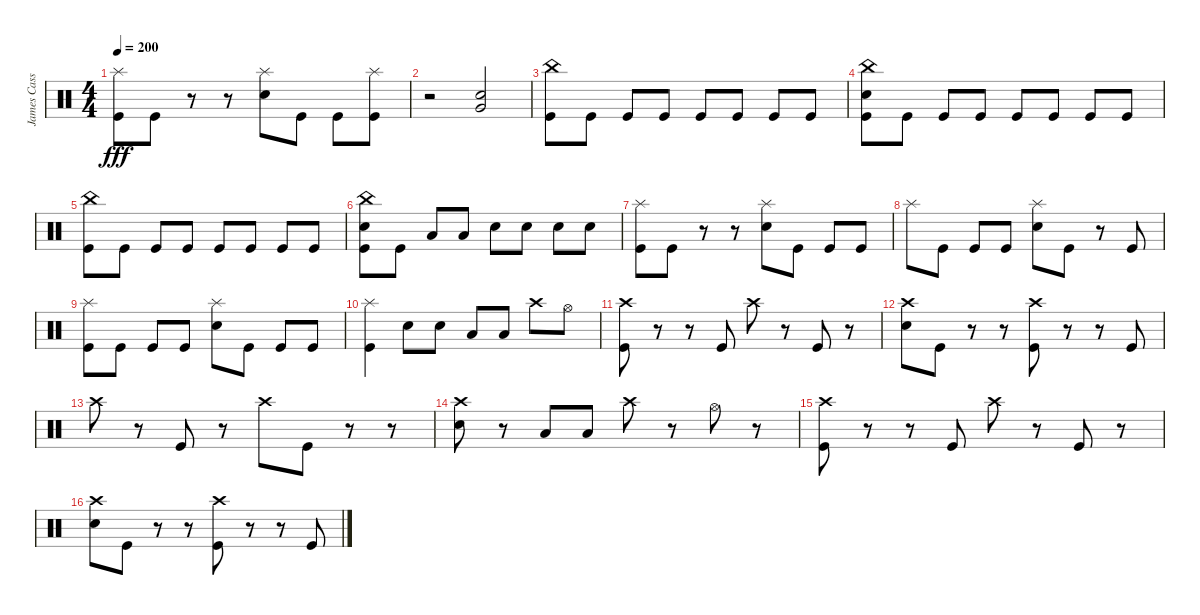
\track ("James Cassells" "James Cass") {instrument percussion}
\staff {score}
\articulation defaults
\ts (4 4)
\tempo 200
\clef neutral
\ks c
("Splash (hit)" "Kick (hit)").8{dy fff} "Kick (hit)".8 r.8 r.8 ("Splash (hit)" "Electric Snare (hit)").8 "Kick (hit)".8 "Kick (hit)".8 ("Splash (hit)" "Kick (hit)").8 |
r.2 ("Very Low Tom (hit)" "Electric Snare (hit)").2 |
("China (hit)" "Kick (hit)").8 "Kick (hit)".8 "Kick (hit)".8 "Kick (hit)".8 "Kick (hit)".8 "Kick (hit)".8 "Kick (hit)".8 "Kick (hit)".8 |
("China (hit)" "Electric Snare (hit)" "Kick (hit)").8 "Kick (hit)".8 "Kick (hit)".8 "Kick (hit)".8 "Kick (hit)".8 "Kick (hit)".8 "Kick (hit)".8 "Kick (hit)".8 |
("China (hit)" "Kick (hit)").8 "Kick (hit)".8 "Kick (hit)".8 "Kick (hit)".8 "Kick (hit)".8 "Kick (hit)".8 "Kick (hit)".8 "Kick (hit)".8 |
("China (hit)" "Electric Snare (hit)" "Kick (hit)").8 "Kick (hit)".8 "Low Tom (hit)".8 "Low Tom (hit)".8 "Electric Snare (hit)".8 "Electric Snare (hit)".8 "Electric Snare (hit)".8 "Electric Snare (hit)".8 |
("Splash (hit)" "Kick (hit)").8 "Kick (hit)".8 r.8 r.8 ("Splash (hit)" "Electric Snare (hit)").8 "Kick (hit)".8 "Kick (hit)".8 "Kick (hit)".8 |
"Splash (hit)".8 "Kick (hit)".8 "Kick (hit)".8 "Kick (hit)".8 ("Splash (hit)" "Electric Snare (hit)").8 "Kick (hit)".8 r.8 "Kick (hit)".8 |
("Splash (hit)" "Kick (hit)").8 "Kick (hit)".8 "Kick (hit)".8 "Kick (hit)".8 ("Splash (hit)" "Electric Snare (hit)").8 "Kick (hit)".8 "Kick (hit)".8 "Kick (hit)".8 |
("Splash (hit)" "Kick (hit)").4 "Electric Snare (hit)".8 "Electric Snare (hit)".8 "Low Tom (hit)".8 "Low Tom (hit)".8 "Crash high (hit)".8 "Hi-Hat (open)".8 |
("Crash high (hit)" "Kick (hit)").8 r.8 r.8 "Kick (hit)".8 "Crash high (hit)".8 r.8 "Kick (hit)".8 r.8 |
("Crash high (hit)" "Electric Snare (hit)").8 "Kick (hit)".8 r.8 r.8 ("Crash high (hit)" "Kick (hit)").8 r.8 r.8 "Kick (hit)".8 |
"Crash high (hit)".8 r.8 "Kick (hit)".8 r.8 "Crash high (hit)".8 "Kick (hit)".8 r.8 r.8 |
("Crash high (hit)" "Electric Snare (hit)").8 r.8 "Low Tom (hit)".8 "Low Tom (hit)".8 "Crash high (hit)".8 r.8 "Hi-Hat (open)".8 r.8 |
("Crash high (hit)" "Kick (hit)").8 r.8 r.8 "Kick (hit)".8 "Crash high (hit)".8 r.8 "Kick (hit)".8 r.8 |
("Crash high (hit)" "Electric Snare (hit)").8 "Kick (hit)".8 r.8 r.8 ("Crash high (hit)" "Kick (hit)").8 r.8 r.8 "Kick (hit)".8
